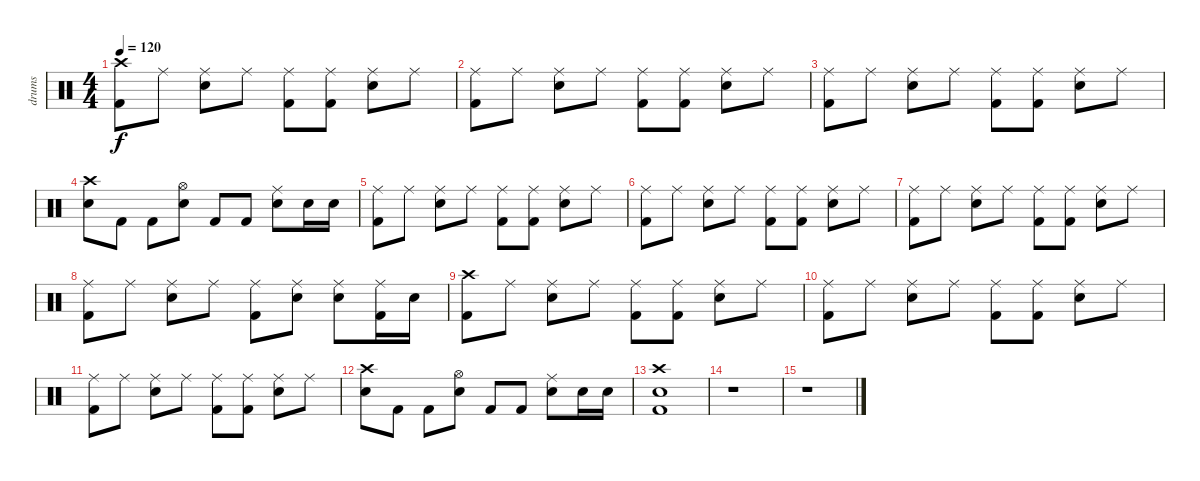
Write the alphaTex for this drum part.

\track ("drums" "drums") {instrument percussion}
\staff {score}
\articulation defaults
\ts (4 4)
\tempo 120
\clef neutral
\ks c
("Crash high (hit)" "Kick (hit) 2").8{dy f} "Ride (middle)".8 ("Ride (middle)" "Snare (hit) 2").8 "Ride (middle)".8 ("Ride (middle)" "Kick (hit) 2").8 ("Ride (middle)" "Kick (hit) 2").8 ("Ride (middle)" "Snare (hit) 2").8 "Ride (middle)".8 |
("Ride (middle)" "Kick (hit) 2").8 "Ride (middle)".8 ("Ride (middle)" "Snare (hit) 2").8 "Ride (middle)".8 ("Ride (middle)" "Kick (hit) 2").8 ("Ride (middle)" "Kick (hit) 2").8 ("Ride (middle)" "Snare (hit) 2").8 "Ride (middle)".8 |
("Ride (middle)" "Kick (hit) 2").8 "Ride (middle)".8 ("Ride (middle)" "Snare (hit) 2").8 "Ride (middle)".8 ("Ride (middle)" "Kick (hit) 2").8 ("Ride (middle)" "Kick (hit) 2").8 ("Ride (middle)" "Snare (hit) 2").8 "Ride (middle)".8 |
("Crash high (hit)" "Snare (hit) 2").8 "Kick (hit) 2".8 "Kick (hit) 2".8 ("Hi-Hat (open)" "Snare (hit) 2").8 "Kick (hit) 2".8 "Kick (hit) 2".8 ("Ride (middle)" "Snare (hit) 2").8 "Snare (hit) 2".16 "Snare (hit) 2".16 |
("Ride (middle)" "Kick (hit) 2").8 "Ride (middle)".8 ("Ride (middle)" "Snare (hit) 2").8 "Ride (middle)".8 ("Ride (middle)" "Kick (hit) 2").8 ("Ride (middle)" "Kick (hit) 2").8 ("Ride (middle)" "Snare (hit) 2").8 "Ride (middle)".8 |
("Ride (middle)" "Kick (hit) 2").8 "Ride (middle)".8 ("Ride (middle)" "Snare (hit) 2").8 "Ride (middle)".8 ("Ride (middle)" "Kick (hit) 2").8 ("Ride (middle)" "Kick (hit) 2").8 ("Ride (middle)" "Snare (hit) 2").8 "Ride (middle)".8 |
("Ride (middle)" "Kick (hit) 2").8 "Ride (middle)".8 ("Ride (middle)" "Snare (hit) 2").8 "Ride (middle)".8 ("Ride (middle)" "Kick (hit) 2").8 ("Ride (middle)" "Kick (hit) 2").8 ("Ride (middle)" "Snare (hit) 2").8 "Ride (middle)".8 |
("Ride (middle)" "Kick (hit) 2").8 "Ride (middle)".8 ("Ride (middle)" "Snare (hit) 2").8 "Ride (middle)".8 ("Ride (middle)" "Kick (hit) 2").8 ("Ride (middle)" "Snare (hit) 2").8 ("Ride (middle)" "Snare (hit) 2").8 ("Ride (middle)" "Kick (hit) 2").16 "Snare (hit) 2".16 |
("Crash high (hit)" "Kick (hit) 2").8 "Ride (middle)".8 ("Ride (middle)" "Snare (hit) 2").8 "Ride (middle)".8 ("Ride (middle)" "Kick (hit) 2").8 ("Ride (middle)" "Kick (hit) 2").8 ("Ride (middle)" "Snare (hit) 2").8 "Ride (middle)".8 |
("Ride (middle)" "Kick (hit) 2").8 "Ride (middle)".8 ("Ride (middle)" "Snare (hit) 2").8 "Ride (middle)".8 ("Ride (middle)" "Kick (hit) 2").8 ("Ride (middle)" "Kick (hit) 2").8 ("Ride (middle)" "Snare (hit) 2").8 "Ride (middle)".8 |
("Ride (middle)" "Kick (hit) 2").8 "Ride (middle)".8 ("Ride (middle)" "Snare (hit) 2").8 "Ride (middle)".8 ("Ride (middle)" "Kick (hit) 2").8 ("Ride (middle)" "Kick (hit) 2").8 ("Ride (middle)" "Snare (hit) 2").8 "Ride (middle)".8 |
("Crash high (hit)" "Snare (hit) 2").8 "Kick (hit) 2".8 "Kick (hit) 2".8 ("Hi-Hat (open)" "Snare (hit) 2").8 "Kick (hit) 2".8 "Kick (hit) 2".8 ("Ride (middle)" "Snare (hit) 2").8 "Snare (hit) 2".16 "Snare (hit) 2".16 |
("Crash high (hit)" "Snare (hit) 2" "Kick (hit) 2").1 |
r.1 |
r.1
